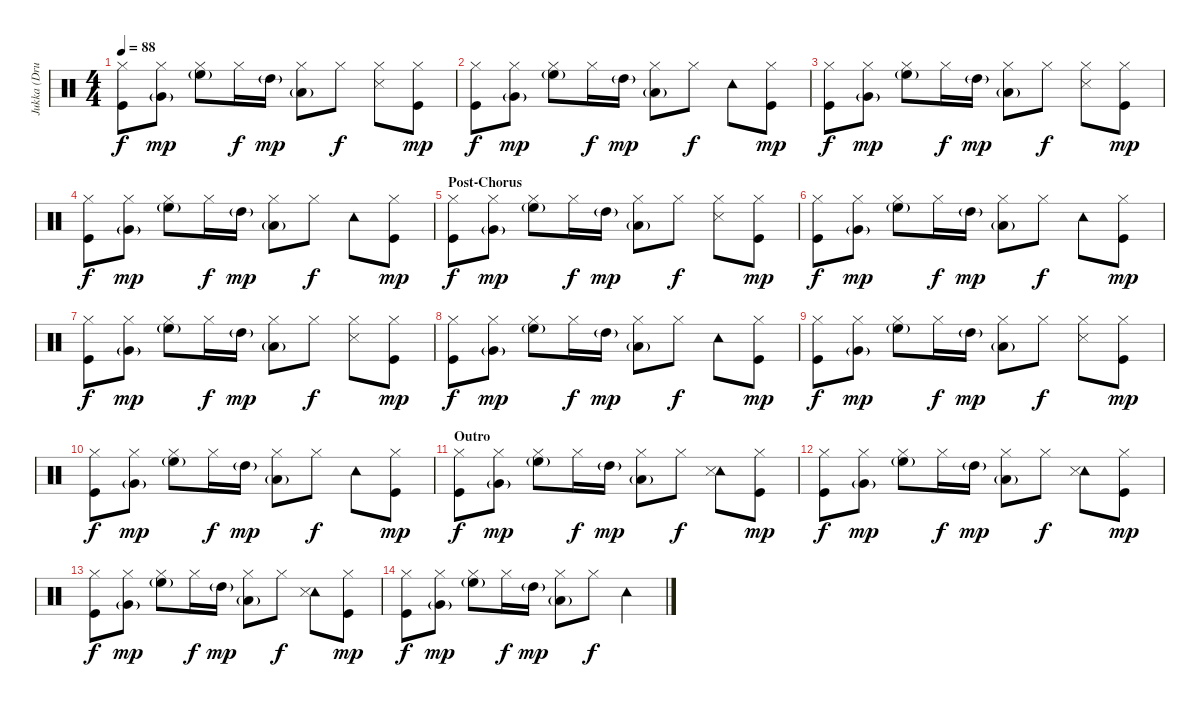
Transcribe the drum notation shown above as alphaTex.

\track ("Jukka (Drums)" "Jukka (Dru") {instrument percussion}
\staff {score}
\articulation defaults
\ts (4 4)
\tempo 88
\clef neutral
\ks c
("Hi-Hat (closed)" "Kick (hit)").8{dy f} ("Hi-Hat (closed)" "Very Low Tom (hit)"{g}).8{dy mp} ("Hi-Hat (closed)" "High Floor Tom (hit)"{g}).8 "Hi-Hat (closed)".16{dy f} "High Tom (hit)"{g}.16{dy mp} ("Hi-Hat (closed)" "Low Floor Tom (hit)"{g}).8 "Hi-Hat (closed)".8{dy f} ("Hi-Hat (closed)" "Snare (side stick) 3").8 ("Hi-Hat (closed)" "Kick (hit)").8{dy mp} |
("Hi-Hat (closed)" "Kick (hit)").8{dy f} ("Hi-Hat (closed)" "Very Low Tom (hit)"{g}).8{dy mp} ("Hi-Hat (closed)" "High Floor Tom (hit)"{g}).8 "Hi-Hat (closed)".16{dy f} "High Tom (hit)"{g}.16{dy mp} ("Hi-Hat (closed)" "Low Floor Tom (hit)"{g}).8 "Hi-Hat (closed)".8{dy f} "Tambourine (hit)".8 ("Hi-Hat (closed)" "Kick (hit)").8{dy mp} |
("Hi-Hat (closed)" "Kick (hit)").8{dy f} ("Hi-Hat (closed)" "Very Low Tom (hit)"{g}).8{dy mp} ("Hi-Hat (closed)" "High Floor Tom (hit)"{g}).8 "Hi-Hat (closed)".16{dy f} "High Tom (hit)"{g}.16{dy mp} ("Hi-Hat (closed)" "Low Floor Tom (hit)"{g}).8 "Hi-Hat (closed)".8{dy f} ("Hi-Hat (closed)" "Snare (side stick) 3").8 ("Hi-Hat (closed)" "Kick (hit)").8{dy mp} |
("Hi-Hat (closed)" "Kick (hit)").8{dy f} ("Hi-Hat (closed)" "Very Low Tom (hit)"{g}).8{dy mp} ("Hi-Hat (closed)" "High Floor Tom (hit)"{g}).8 "Hi-Hat (closed)".16{dy f} "High Tom (hit)"{g}.16{dy mp} ("Hi-Hat (closed)" "Low Floor Tom (hit)"{g}).8 "Hi-Hat (closed)".8{dy f} "Tambourine (hit)".8 ("Hi-Hat (closed)" "Kick (hit)").8{dy mp} |
\section ("" "Post-Chorus")
("Hi-Hat (closed)" "Kick (hit)").8{dy f} ("Hi-Hat (closed)" "Very Low Tom (hit)"{g}).8{dy mp} ("Hi-Hat (closed)" "High Floor Tom (hit)"{g}).8 "Hi-Hat (closed)".16{dy f} "High Tom (hit)"{g}.16{dy mp} ("Hi-Hat (closed)" "Low Floor Tom (hit)"{g}).8 "Hi-Hat (closed)".8{dy f} ("Hi-Hat (closed)" "Snare (side stick) 3").8 ("Hi-Hat (closed)" "Kick (hit)").8{dy mp} |
("Hi-Hat (closed)" "Kick (hit)").8{dy f} ("Hi-Hat (closed)" "Very Low Tom (hit)"{g}).8{dy mp} ("Hi-Hat (closed)" "High Floor Tom (hit)"{g}).8 "Hi-Hat (closed)".16{dy f} "High Tom (hit)"{g}.16{dy mp} ("Hi-Hat (closed)" "Low Floor Tom (hit)"{g}).8 "Hi-Hat (closed)".8{dy f} "Tambourine (hit)".8 ("Hi-Hat (closed)" "Kick (hit)").8{dy mp} |
("Hi-Hat (closed)" "Kick (hit)").8{dy f} ("Hi-Hat (closed)" "Very Low Tom (hit)"{g}).8{dy mp} ("Hi-Hat (closed)" "High Floor Tom (hit)"{g}).8 "Hi-Hat (closed)".16{dy f} "High Tom (hit)"{g}.16{dy mp} ("Hi-Hat (closed)" "Low Floor Tom (hit)"{g}).8 "Hi-Hat (closed)".8{dy f} ("Hi-Hat (closed)" "Snare (side stick) 3").8 ("Hi-Hat (closed)" "Kick (hit)").8{dy mp} |
("Hi-Hat (closed)" "Kick (hit)").8{dy f} ("Hi-Hat (closed)" "Very Low Tom (hit)"{g}).8{dy mp} ("Hi-Hat (closed)" "High Floor Tom (hit)"{g}).8 "Hi-Hat (closed)".16{dy f} "High Tom (hit)"{g}.16{dy mp} ("Hi-Hat (closed)" "Low Floor Tom (hit)"{g}).8 "Hi-Hat (closed)".8{dy f} "Tambourine (hit)".8 ("Hi-Hat (closed)" "Kick (hit)").8{dy mp} |
("Hi-Hat (closed)" "Kick (hit)").8{dy f} ("Hi-Hat (closed)" "Very Low Tom (hit)"{g}).8{dy mp} ("Hi-Hat (closed)" "High Floor Tom (hit)"{g}).8 "Hi-Hat (closed)".16{dy f} "High Tom (hit)"{g}.16{dy mp} ("Hi-Hat (closed)" "Low Floor Tom (hit)"{g}).8 "Hi-Hat (closed)".8{dy f} ("Hi-Hat (closed)" "Snare (side stick) 3").8 ("Hi-Hat (closed)" "Kick (hit)").8{dy mp} |
("Hi-Hat (closed)" "Kick (hit)").8{dy f} ("Hi-Hat (closed)" "Very Low Tom (hit)"{g}).8{dy mp} ("Hi-Hat (closed)" "High Floor Tom (hit)"{g}).8 "Hi-Hat (closed)".16{dy f} "High Tom (hit)"{g}.16{dy mp} ("Hi-Hat (closed)" "Low Floor Tom (hit)"{g}).8 "Hi-Hat (closed)".8{dy f} "Tambourine (hit)".8 ("Hi-Hat (closed)" "Kick (hit)").8{dy mp} |
\section ("" "Outro")
("Hi-Hat (closed)" "Kick (hit)").8{dy f} ("Hi-Hat (closed)" "Very Low Tom (hit)"{g}).8{dy mp} ("Hi-Hat (closed)" "High Floor Tom (hit)"{g}).8 "Hi-Hat (closed)".16{dy f} "High Tom (hit)"{g}.16{dy mp} ("Hi-Hat (closed)" "Low Floor Tom (hit)"{g}).8 "Hi-Hat (closed)".8{dy f} ("Tambourine (hit)" "Snare (side stick) 3").8 ("Hi-Hat (closed)" "Kick (hit)").8{dy mp} |
("Hi-Hat (closed)" "Kick (hit)").8{dy f} ("Hi-Hat (closed)" "Very Low Tom (hit)"{g}).8{dy mp} ("Hi-Hat (closed)" "High Floor Tom (hit)"{g}).8 "Hi-Hat (closed)".16{dy f} "High Tom (hit)"{g}.16{dy mp} ("Hi-Hat (closed)" "Low Floor Tom (hit)"{g}).8 "Hi-Hat (closed)".8{dy f} ("Tambourine (hit)" "Snare (side stick) 3").8 ("Hi-Hat (closed)" "Kick (hit)").8{dy mp} |
("Hi-Hat (closed)" "Kick (hit)").8{dy f} ("Hi-Hat (closed)" "Very Low Tom (hit)"{g}).8{dy mp} ("Hi-Hat (closed)" "High Floor Tom (hit)"{g}).8 "Hi-Hat (closed)".16{dy f} "High Tom (hit)"{g}.16{dy mp} ("Hi-Hat (closed)" "Low Floor Tom (hit)"{g}).8 "Hi-Hat (closed)".8{dy f} ("Tambourine (hit)" "Snare (side stick) 3").8 ("Hi-Hat (closed)" "Kick (hit)").8{dy mp} |
("Hi-Hat (closed)" "Kick (hit)").8{dy f} ("Hi-Hat (closed)" "Very Low Tom (hit)"{g}).8{dy mp} ("Hi-Hat (closed)" "High Floor Tom (hit)"{g}).8 "Hi-Hat (closed)".16{dy f} "High Tom (hit)"{g}.16{dy mp} ("Hi-Hat (closed)" "Low Floor Tom (hit)"{g}).8 "Hi-Hat (closed)".8{dy f} "Tambourine (hit)".4{volume 16}
